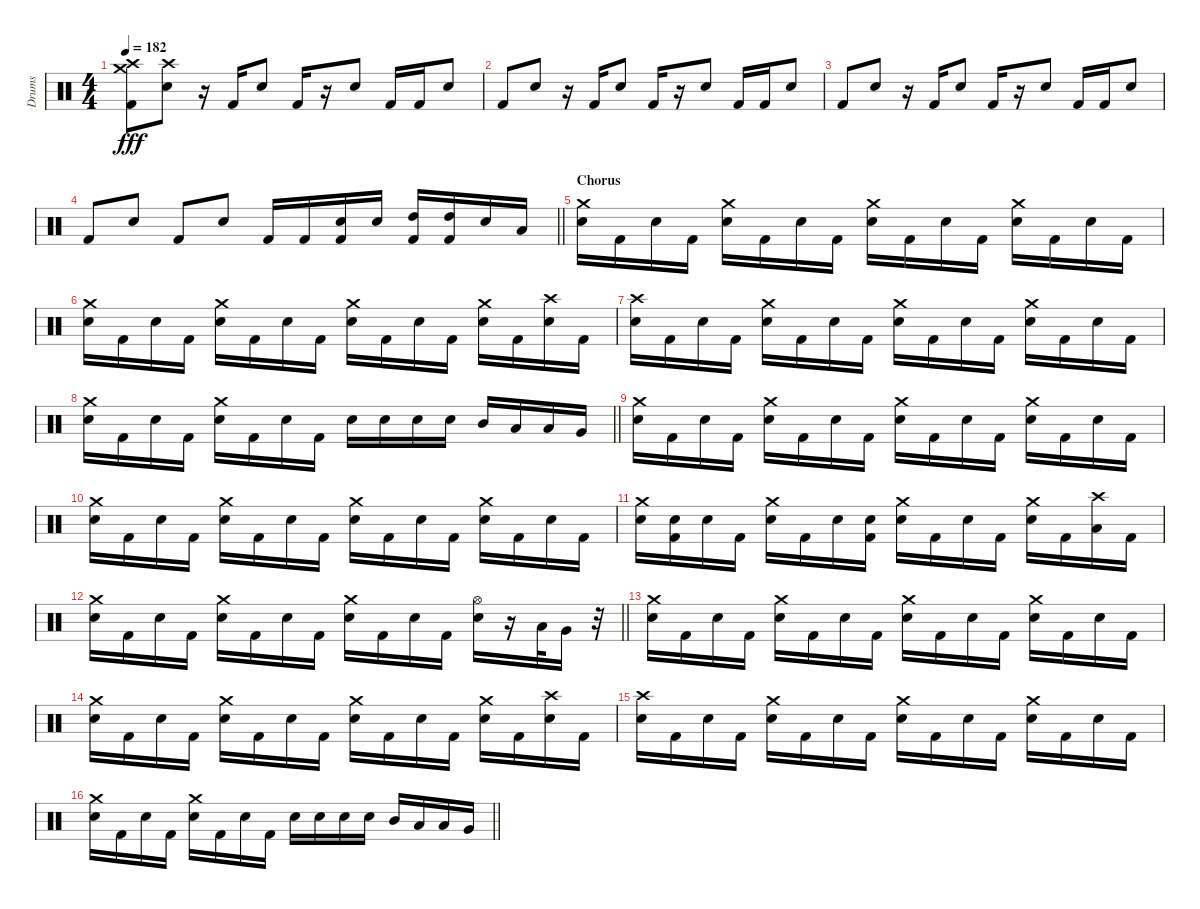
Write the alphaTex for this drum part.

\track ("Drums" "Drums") {instrument percussion}
\staff {score}
\articulation defaults
\ts (4 4)
\tempo 182
\clef neutral
\ks c
("Crash high (hit)" "Crash medium (hit)" "Kick (hit) 2").8{dy fff} ("Crash high (hit)" "Snare (hit) 2").8 r.16 "Kick (hit) 2".16 "Snare (hit) 2".8 "Kick (hit) 2".16 r.16 "Snare (hit) 2".8 "Kick (hit) 2".16 "Kick (hit) 2".16 "Snare (hit) 2".8 |
"Kick (hit) 2".8 "Snare (hit) 2".8 r.16 "Kick (hit) 2".16 "Snare (hit) 2".8 "Kick (hit) 2".16 r.16 "Snare (hit) 2".8 "Kick (hit) 2".16 "Kick (hit) 2".16 "Snare (hit) 2".8 |
"Kick (hit) 2".8 "Snare (hit) 2".8 r.16 "Kick (hit) 2".16 "Snare (hit) 2".8 "Kick (hit) 2".16 r.16 "Snare (hit) 2".8 "Kick (hit) 2".16 "Kick (hit) 2".16 "Snare (hit) 2".8 |
\barLineRight lightlight "Kick (hit) 2".8 "Snare (hit) 2".8 "Kick (hit) 2".8 "Snare (hit) 2".8 "Kick (hit) 2".16 "Kick (hit) 2".16
("Kick (hit) 2" "Snare (hit) 2").16 "Snare (hit) 2".16 ("Kick (hit) 2" "High Tom (hit)").16 ("Kick (hit) 2" "High Tom (hit)").16 "Snare (hit) 2".16 "Low Tom (hit)".16 |
\section ("" "Chorus")
("Crash medium (hit)" "Snare (hit) 2").16 "Kick (hit) 2".16 "Snare (hit) 2".16 "Kick (hit) 2".16 ("Crash medium (hit)" "Snare (hit) 2").16 "Kick (hit) 2".16 "Snare (hit) 2".16 "Kick (hit) 2".16 ("Crash medium (hit)" "Snare (hit) 2").16 "Kick (hit) 2".16 "Snare (hit) 2".16 "Kick (hit) 2".16 ("Crash medium (hit)" "Snare (hit) 2").16 "Kick (hit) 2".16 "Snare (hit) 2".16 "Kick (hit) 2".16 |
("Crash medium (hit)" "Snare (hit) 2").16 "Kick (hit) 2".16 "Snare (hit) 2".16 "Kick (hit) 2".16 ("Crash medium (hit)" "Snare (hit) 2").16 "Kick (hit) 2".16 "Snare (hit) 2".16 "Kick (hit) 2".16 ("Crash medium (hit)" "Snare (hit) 2").16 "Kick (hit) 2".16 "Snare (hit) 2".16 "Kick (hit) 2".16 ("Crash medium (hit)" "Snare (hit) 2").16 "Kick (hit) 2".16 ("Crash high (hit)" "Snare (hit) 2").16 "Kick (hit) 2".16 |
("Crash high (hit)" "Snare (hit) 2").16 "Kick (hit) 2".16 "Snare (hit) 2".16 "Kick (hit) 2".16 ("Crash medium (hit)" "Snare (hit) 2").16 "Kick (hit) 2".16 "Snare (hit) 2".16 "Kick (hit) 2".16 ("Crash medium (hit)" "Snare (hit) 2").16 "Kick (hit) 2".16 "Snare (hit) 2".16 "Kick (hit) 2".16 ("Crash medium (hit)" "Snare (hit) 2").16 "Kick (hit) 2".16 "Snare (hit) 2".16 "Kick (hit) 2".16 |
\barLineRight lightlight
("Crash medium (hit)" "Snare (hit) 2").16 "Kick (hit) 2".16 "Snare (hit) 2".16 "Kick (hit) 2".16 ("Crash medium (hit)" "Snare (hit) 2").16 "Kick (hit) 2".16 "Snare (hit) 2".16 "Kick (hit) 2".16 "Snare (hit) 2".16 "Snare (hit) 2".16 "Snare (hit) 2".16 "Snare (hit) 2".16 "Mid Tom (hit)".16 "Low Tom (hit)".16 "Low Tom (hit)".16 "Very Low Tom (hit)".16 |
("Crash medium (hit)" "Snare (hit) 2").16 "Kick (hit) 2".16 "Snare (hit) 2".16 "Kick (hit) 2".16 ("Crash medium (hit)" "Snare (hit) 2").16 "Kick (hit) 2".16 "Snare (hit) 2".16 "Kick (hit) 2".16 ("Crash medium (hit)" "Snare (hit) 2").16 "Kick (hit) 2".16 "Snare (hit) 2".16 "Kick (hit) 2".16 ("Crash medium (hit)" "Snare (hit) 2").16 "Kick (hit) 2".16 "Snare (hit) 2".16 "Kick (hit) 2".16 |
("Crash medium (hit)" "Snare (hit) 2").16 "Kick (hit) 2".16 "Snare (hit) 2".16 "Kick (hit) 2".16 ("Crash medium (hit)" "Snare (hit) 2").16 "Kick (hit) 2".16 "Snare (hit) 2".16 "Kick (hit) 2".16 ("Crash medium (hit)" "Snare (hit) 2").16 "Kick (hit) 2".16 "Snare (hit) 2".16 "Kick (hit) 2".16 ("Crash medium (hit)" "Snare (hit) 2").16 "Kick (hit) 2".16 "Snare (hit) 2".16 "Kick (hit) 2".16 |
("Crash medium (hit)" "Snare (hit) 2").16 ("Kick (hit) 2" "Snare (hit) 2").16 "Snare (hit) 2".16 "Kick (hit) 2".16 ("Crash medium (hit)" "Snare (hit) 2").16 "Kick (hit) 2".16 "Snare (hit) 2".16 ("Kick (hit) 2" "Snare (hit) 2").16 ("Crash medium (hit)" "Snare (hit) 2").16 "Kick (hit) 2".16 "Snare (hit) 2".16 "Kick (hit) 2".16 ("Crash medium (hit)" "Snare (hit) 2").16 "Kick (hit) 2".16 ("Crash high (hit)" "Low Tom (hit)").16 "Kick (hit) 2".16 |
\barLineRight lightlight
("Crash medium (hit)" "Snare (hit) 2").16 "Kick (hit) 2".16 "Snare (hit) 2".16 "Kick (hit) 2".16 ("Crash medium (hit)" "Snare (hit) 2").16 "Kick (hit) 2".16 "Snare (hit) 2".16 "Kick (hit) 2".16 ("Crash medium (hit)" "Snare (hit) 2").16 "Kick (hit) 2".16 "Snare (hit) 2".16 "Kick (hit) 2".16 ("Hi-Hat (open)" "Snare (hit) 2").16 r.16 "Low Tom (hit)".32 "Very Low Tom (hit)".16 r.32 |
("Crash medium (hit)" "Snare (hit) 2").16 "Kick (hit) 2".16 "Snare (hit) 2".16 "Kick (hit) 2".16 ("Crash medium (hit)" "Snare (hit) 2").16 "Kick (hit) 2".16 "Snare (hit) 2".16 "Kick (hit) 2".16 ("Crash medium (hit)" "Snare (hit) 2").16 "Kick (hit) 2".16 "Snare (hit) 2".16 "Kick (hit) 2".16 ("Crash medium (hit)" "Snare (hit) 2").16 "Kick (hit) 2".16 "Snare (hit) 2".16 "Kick (hit) 2".16 |
("Crash medium (hit)" "Snare (hit) 2").16 "Kick (hit) 2".16 "Snare (hit) 2".16 "Kick (hit) 2".16 ("Crash medium (hit)" "Snare (hit) 2").16 "Kick (hit) 2".16 "Snare (hit) 2".16 "Kick (hit) 2".16 ("Crash medium (hit)" "Snare (hit) 2").16 "Kick (hit) 2".16 "Snare (hit) 2".16 "Kick (hit) 2".16 ("Crash medium (hit)" "Snare (hit) 2").16 "Kick (hit) 2".16 ("Crash high (hit)" "Snare (hit) 2").16 "Kick (hit) 2".16 |
("Crash high (hit)" "Snare (hit) 2").16 "Kick (hit) 2".16 "Snare (hit) 2".16 "Kick (hit) 2".16 ("Crash medium (hit)" "Snare (hit) 2").16 "Kick (hit) 2".16 "Snare (hit) 2".16 "Kick (hit) 2".16 ("Crash medium (hit)" "Snare (hit) 2").16 "Kick (hit) 2".16 "Snare (hit) 2".16 "Kick (hit) 2".16 ("Crash medium (hit)" "Snare (hit) 2").16 "Kick (hit) 2".16 "Snare (hit) 2".16 "Kick (hit) 2".16 |
\barLineRight lightlight
("Crash medium (hit)" "Snare (hit) 2").16 "Kick (hit) 2".16 "Snare (hit) 2".16 "Kick (hit) 2".16 ("Crash medium (hit)" "Snare (hit) 2").16 "Kick (hit) 2".16 "Snare (hit) 2".16 "Kick (hit) 2".16 "Snare (hit) 2".16 "Snare (hit) 2".16 "Snare (hit) 2".16 "Snare (hit) 2".16 "Mid Tom (hit)".16 "Low Tom (hit)".16 "Low Tom (hit)".16 "Very Low Tom (hit)".16
